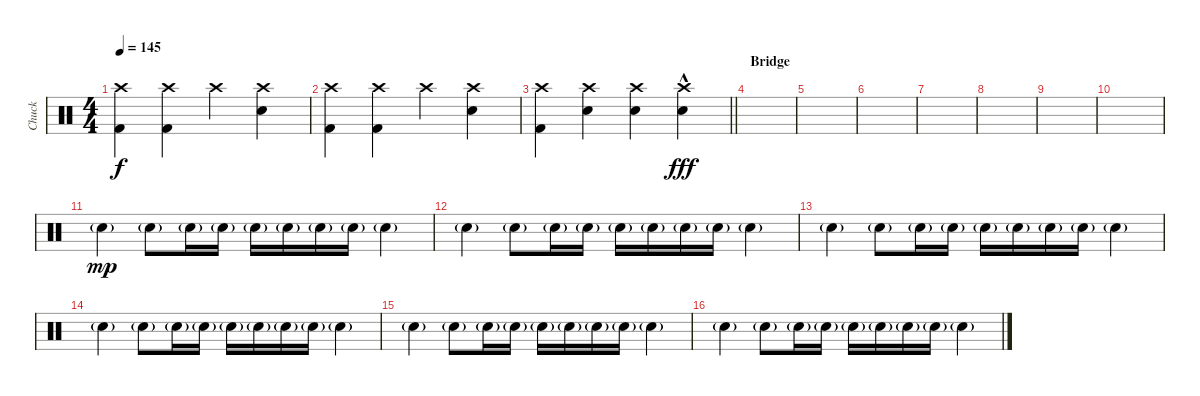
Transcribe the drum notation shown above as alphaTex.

\track ("Chuck" "Chuck") {instrument percussion}
\staff {score}
\articulation defaults
\ts (4 4)
\tempo 145
\clef neutral
\ks c
("Crash high (hit)" "Kick (hit) 2").4{dy f} ("Crash high (hit)" "Kick (hit) 2").4 "Crash high (hit)".4 ("Crash high (hit)" "Snare (hit) 2").4 |
("Crash high (hit)" "Kick (hit) 2").4 ("Crash high (hit)" "Kick (hit) 2").4 "Crash high (hit)".4 ("Crash high (hit)" "Snare (hit) 2").4 |
\barLineRight lightlight
("Crash high (hit)" "Kick (hit) 2").4 ("Crash high (hit)" "Snare (hit) 2").4 ("Crash high (hit)" "Snare (hit) 2").4 ("Crash high (hit)"{hac} "Snare (hit) 2"{hac}).4{dy fff} |
\section ("" "Bridge")
|
|
|
|
|
|
|
"Snare (hit) 2"{g}.4{dy mp} "Snare (hit) 2"{g}.8 "Snare (hit) 2"{g}.16 "Snare (hit) 2"{g}.16 "Snare (hit) 2"{g}.16 "Snare (hit) 2"{g}.16 "Snare (hit) 2"{g}.16 "Snare (hit) 2"{g}.16 "Snare (hit) 2"{g}.4 |
"Snare (hit) 2"{g}.4 "Snare (hit) 2"{g}.8 "Snare (hit) 2"{g}.16 "Snare (hit) 2"{g}.16 "Snare (hit) 2"{g}.16 "Snare (hit) 2"{g}.16 "Snare (hit) 2"{g}.16 "Snare (hit) 2"{g}.16 "Snare (hit) 2"{g}.4 |
"Snare (hit) 2"{g}.4 "Snare (hit) 2"{g}.8 "Snare (hit) 2"{g}.16 "Snare (hit) 2"{g}.16 "Snare (hit) 2"{g}.16 "Snare (hit) 2"{g}.16 "Snare (hit) 2"{g}.16 "Snare (hit) 2"{g}.16 "Snare (hit) 2"{g}.4 |
"Snare (hit) 2"{g}.4 "Snare (hit) 2"{g}.8 "Snare (hit) 2"{g}.16 "Snare (hit) 2"{g}.16 "Snare (hit) 2"{g}.16 "Snare (hit) 2"{g}.16 "Snare (hit) 2"{g}.16 "Snare (hit) 2"{g}.16 "Snare (hit) 2"{g}.4 |
"Snare (hit) 2"{g}.4 "Snare (hit) 2"{g}.8 "Snare (hit) 2"{g}.16 "Snare (hit) 2"{g}.16 "Snare (hit) 2"{g}.16 "Snare (hit) 2"{g}.16 "Snare (hit) 2"{g}.16 "Snare (hit) 2"{g}.16 "Snare (hit) 2"{g}.4 |
"Snare (hit) 2"{g}.4 "Snare (hit) 2"{g}.8 "Snare (hit) 2"{g}.16 "Snare (hit) 2"{g}.16 "Snare (hit) 2"{g}.16 "Snare (hit) 2"{g}.16 "Snare (hit) 2"{g}.16 "Snare (hit) 2"{g}.16 "Snare (hit) 2"{g}.4
